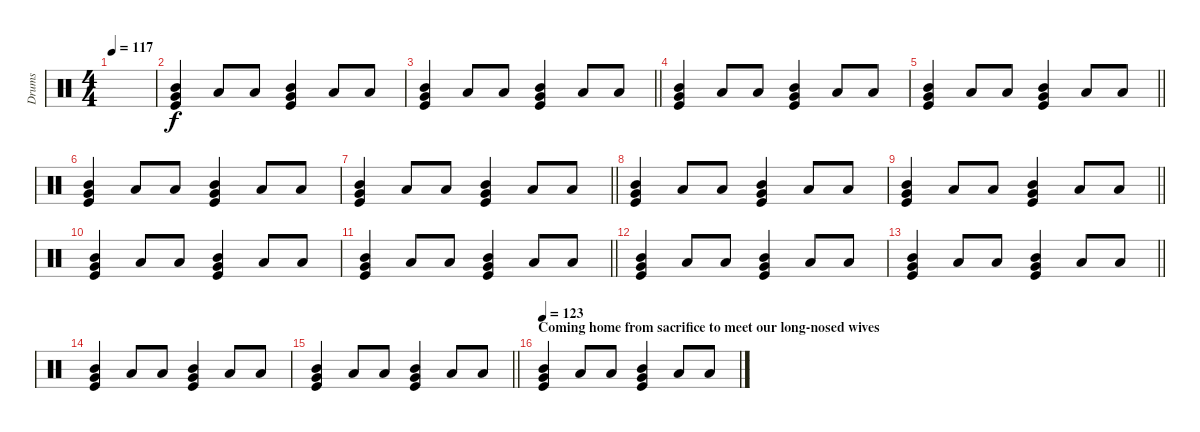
\track ("Drums" "Drums") {instrument percussion}
\staff {score}
\articulation defaults
\ts (4 4)
\tempo 117
\clef neutral
\ks c
|
("Mid Tom (hit)" "Very Low Tom (hit)" "Kick (hit)").4 "Low Tom (hit)".8 "Low Tom (hit)".8 ("Mid Tom (hit)" "Very Low Tom (hit)" "Kick (hit)").4 "Low Tom (hit)".8 "Low Tom (hit)".8 |
\barLineRight lightlight
("Mid Tom (hit)" "Very Low Tom (hit)" "Kick (hit)").4 "Low Tom (hit)".8 "Low Tom (hit)".8 ("Mid Tom (hit)" "Very Low Tom (hit)" "Kick (hit)").4 "Low Tom (hit)".8 "Low Tom (hit)".8 |
("Mid Tom (hit)" "Very Low Tom (hit)" "Kick (hit)").4 "Low Tom (hit)".8 "Low Tom (hit)".8 ("Mid Tom (hit)" "Very Low Tom (hit)" "Kick (hit)").4 "Low Tom (hit)".8 "Low Tom (hit)".8 |
\barLineRight lightlight
("Mid Tom (hit)" "Very Low Tom (hit)" "Kick (hit)").4 "Low Tom (hit)".8 "Low Tom (hit)".8 ("Mid Tom (hit)" "Very Low Tom (hit)" "Kick (hit)").4 "Low Tom (hit)".8 "Low Tom (hit)".8 |
("Mid Tom (hit)" "Very Low Tom (hit)" "Kick (hit)").4 "Low Tom (hit)".8 "Low Tom (hit)".8 ("Mid Tom (hit)" "Very Low Tom (hit)" "Kick (hit)").4 "Low Tom (hit)".8 "Low Tom (hit)".8 |
\barLineRight lightlight
("Mid Tom (hit)" "Very Low Tom (hit)" "Kick (hit)").4 "Low Tom (hit)".8 "Low Tom (hit)".8 ("Mid Tom (hit)" "Very Low Tom (hit)" "Kick (hit)").4 "Low Tom (hit)".8 "Low Tom (hit)".8 |
("Mid Tom (hit)" "Very Low Tom (hit)" "Kick (hit)").4 "Low Tom (hit)".8 "Low Tom (hit)".8 ("Mid Tom (hit)" "Very Low Tom (hit)" "Kick (hit)").4 "Low Tom (hit)".8 "Low Tom (hit)".8 |
\barLineRight lightlight
("Mid Tom (hit)" "Very Low Tom (hit)" "Kick (hit)").4 "Low Tom (hit)".8 "Low Tom (hit)".8 ("Mid Tom (hit)" "Very Low Tom (hit)" "Kick (hit)").4 "Low Tom (hit)".8 "Low Tom (hit)".8 |
("Mid Tom (hit)" "Very Low Tom (hit)" "Kick (hit)").4 "Low Tom (hit)".8 "Low Tom (hit)".8 ("Mid Tom (hit)" "Very Low Tom (hit)" "Kick (hit)").4 "Low Tom (hit)".8 "Low Tom (hit)".8 |
\barLineRight lightlight
("Mid Tom (hit)" "Very Low Tom (hit)" "Kick (hit)").4 "Low Tom (hit)".8 "Low Tom (hit)".8 ("Mid Tom (hit)" "Very Low Tom (hit)" "Kick (hit)").4 "Low Tom (hit)".8 "Low Tom (hit)".8 |
("Mid Tom (hit)" "Very Low Tom (hit)" "Kick (hit)").4 "Low Tom (hit)".8 "Low Tom (hit)".8 ("Mid Tom (hit)" "Very Low Tom (hit)" "Kick (hit)").4 "Low Tom (hit)".8 "Low Tom (hit)".8 |
\barLineRight lightlight
("Mid Tom (hit)" "Very Low Tom (hit)" "Kick (hit)").4 "Low Tom (hit)".8 "Low Tom (hit)".8 ("Mid Tom (hit)" "Very Low Tom (hit)" "Kick (hit)").4 "Low Tom (hit)".8 "Low Tom (hit)".8 |
("Mid Tom (hit)" "Very Low Tom (hit)" "Kick (hit)").4 "Low Tom (hit)".8 "Low Tom (hit)".8 ("Mid Tom (hit)" "Very Low Tom (hit)" "Kick (hit)").4 "Low Tom (hit)".8 "Low Tom (hit)".8 |
\barLineRight lightlight
("Mid Tom (hit)" "Very Low Tom (hit)" "Kick (hit)").4 "Low Tom (hit)".8 "Low Tom (hit)".8 ("Mid Tom (hit)" "Very Low Tom (hit)" "Kick (hit)").4 "Low Tom (hit)".8 "Low Tom (hit)".8 |
\section ("" "Coming home from sacrifice to meet our long-nosed wives ")
\tempo 123
("Mid Tom (hit)" "Very Low Tom (hit)" "Kick (hit)").4 "Low Tom (hit)".8 "Low Tom (hit)".8 ("Mid Tom (hit)" "Very Low Tom (hit)" "Kick (hit)").4 "Low Tom (hit)".8 "Low Tom (hit)".8
